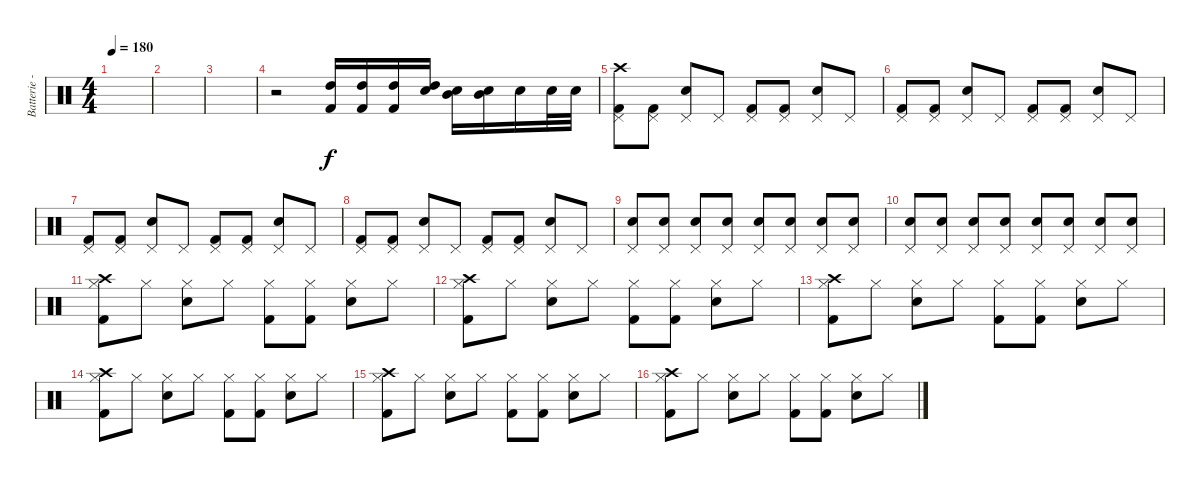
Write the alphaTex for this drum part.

\track ("Batterie - Stevo" "Batterie -") {instrument percussion}
\staff {score}
\articulation defaults
\ts (4 4)
\tempo 180
\clef neutral
\ks c
|
|
|
r.2 ("High Tom (hit)" "Kick (hit) 2").16 ("High Tom (hit)" "Kick (hit) 2").16 ("High Tom (hit)" "Kick (hit) 2").16 ("High Tom (hit)" "Electric Snare (hit)").16 ("Mid Tom (hit)" "Electric Snare (hit)").16 ("Mid Tom (hit)" "Electric Snare (hit)").16 "Electric Snare (hit)".16 "Electric Snare (hit)".32 "Electric Snare (hit)".32 |
("Pedal Hi-Hat (hit)" "Crash high (hit)" "Kick (hit) 2").8 ("Pedal Hi-Hat (hit)" "Kick (hit) 2").8 ("Pedal Hi-Hat (hit)" "Electric Snare (hit)").8 "Pedal Hi-Hat (hit)".8 ("Pedal Hi-Hat (hit)" "Kick (hit) 2").8 ("Pedal Hi-Hat (hit)" "Kick (hit) 2").8 ("Pedal Hi-Hat (hit)" "Electric Snare (hit)").8 "Pedal Hi-Hat (hit)".8 |
("Pedal Hi-Hat (hit)" "Kick (hit) 2").8 ("Pedal Hi-Hat (hit)" "Kick (hit) 2").8 ("Pedal Hi-Hat (hit)" "Electric Snare (hit)").8 "Pedal Hi-Hat (hit)".8 ("Pedal Hi-Hat (hit)" "Kick (hit) 2").8 ("Pedal Hi-Hat (hit)" "Kick (hit) 2").8 ("Pedal Hi-Hat (hit)" "Electric Snare (hit)").8 "Pedal Hi-Hat (hit)".8 |
("Pedal Hi-Hat (hit)" "Kick (hit) 2").8 ("Pedal Hi-Hat (hit)" "Kick (hit) 2").8 ("Pedal Hi-Hat (hit)" "Electric Snare (hit)").8 "Pedal Hi-Hat (hit)".8 ("Pedal Hi-Hat (hit)" "Kick (hit) 2").8 ("Pedal Hi-Hat (hit)" "Kick (hit) 2").8 ("Pedal Hi-Hat (hit)" "Electric Snare (hit)").8 "Pedal Hi-Hat (hit)".8 |
("Pedal Hi-Hat (hit)" "Kick (hit) 2").8 ("Pedal Hi-Hat (hit)" "Kick (hit) 2").8 ("Pedal Hi-Hat (hit)" "Electric Snare (hit)").8 "Pedal Hi-Hat (hit)".8 ("Pedal Hi-Hat (hit)" "Kick (hit) 2").8 ("Pedal Hi-Hat (hit)" "Kick (hit) 2").8 ("Pedal Hi-Hat (hit)" "Electric Snare (hit)").8 "Pedal Hi-Hat (hit)".8 |
("Pedal Hi-Hat (hit)" "Electric Snare (hit)").8 ("Pedal Hi-Hat (hit)" "Electric Snare (hit)").8 ("Pedal Hi-Hat (hit)" "Electric Snare (hit)").8 ("Pedal Hi-Hat (hit)" "Electric Snare (hit)").8 ("Pedal Hi-Hat (hit)" "Electric Snare (hit)").8 ("Pedal Hi-Hat (hit)" "Electric Snare (hit)").8 ("Pedal Hi-Hat (hit)" "Electric Snare (hit)").8 ("Pedal Hi-Hat (hit)" "Electric Snare (hit)").8 |
("Pedal Hi-Hat (hit)" "Electric Snare (hit)").8 ("Pedal Hi-Hat (hit)" "Electric Snare (hit)").8 ("Pedal Hi-Hat (hit)" "Electric Snare (hit)").8 ("Pedal Hi-Hat (hit)" "Electric Snare (hit)").8 ("Pedal Hi-Hat (hit)" "Electric Snare (hit)").8 ("Pedal Hi-Hat (hit)" "Electric Snare (hit)").8 ("Pedal Hi-Hat (hit)" "Electric Snare (hit)").8 ("Pedal Hi-Hat (hit)" "Electric Snare (hit)").8 |
("Hi-Hat (closed)" "Kick (hit) 2" "Crash high (hit)").8 "Hi-Hat (closed)".8 ("Hi-Hat (closed)" "Electric Snare (hit)").8 "Hi-Hat (closed)".8 ("Hi-Hat (closed)" "Kick (hit) 2").8 ("Hi-Hat (closed)" "Kick (hit) 2").8 ("Hi-Hat (closed)" "Electric Snare (hit)").8 "Hi-Hat (closed)".8 |
("Hi-Hat (closed)" "Kick (hit) 2" "Crash high (hit)").8 "Hi-Hat (closed)".8 ("Hi-Hat (closed)" "Electric Snare (hit)").8 "Hi-Hat (closed)".8 ("Hi-Hat (closed)" "Kick (hit) 2").8 ("Hi-Hat (closed)" "Kick (hit) 2").8 ("Hi-Hat (closed)" "Electric Snare (hit)").8 "Hi-Hat (closed)".8 |
("Hi-Hat (closed)" "Kick (hit) 2" "Crash high (hit)").8 "Hi-Hat (closed)".8 ("Hi-Hat (closed)" "Electric Snare (hit)").8 "Hi-Hat (closed)".8 ("Hi-Hat (closed)" "Kick (hit) 2").8 ("Hi-Hat (closed)" "Kick (hit) 2").8 ("Hi-Hat (closed)" "Electric Snare (hit)").8 "Hi-Hat (closed)".8 |
("Hi-Hat (closed)" "Kick (hit) 2" "Crash high (hit)").8 "Hi-Hat (closed)".8 ("Hi-Hat (closed)" "Electric Snare (hit)").8 "Hi-Hat (closed)".8 ("Hi-Hat (closed)" "Kick (hit) 2").8 ("Hi-Hat (closed)" "Kick (hit) 2").8 ("Hi-Hat (closed)" "Electric Snare (hit)").8 "Hi-Hat (closed)".8 |
("Hi-Hat (closed)" "Kick (hit) 2" "Crash high (hit)").8 "Hi-Hat (closed)".8 ("Hi-Hat (closed)" "Electric Snare (hit)").8 "Hi-Hat (closed)".8 ("Hi-Hat (closed)" "Kick (hit) 2").8 ("Hi-Hat (closed)" "Kick (hit) 2").8 ("Hi-Hat (closed)" "Electric Snare (hit)").8 "Hi-Hat (closed)".8 |
("Hi-Hat (closed)" "Kick (hit) 2" "Crash high (hit)").8 "Hi-Hat (closed)".8 ("Hi-Hat (closed)" "Electric Snare (hit)").8 "Hi-Hat (closed)".8 ("Hi-Hat (closed)" "Kick (hit) 2").8 ("Hi-Hat (closed)" "Kick (hit) 2").8 ("Hi-Hat (closed)" "Electric Snare (hit)").8 "Hi-Hat (closed)".8
